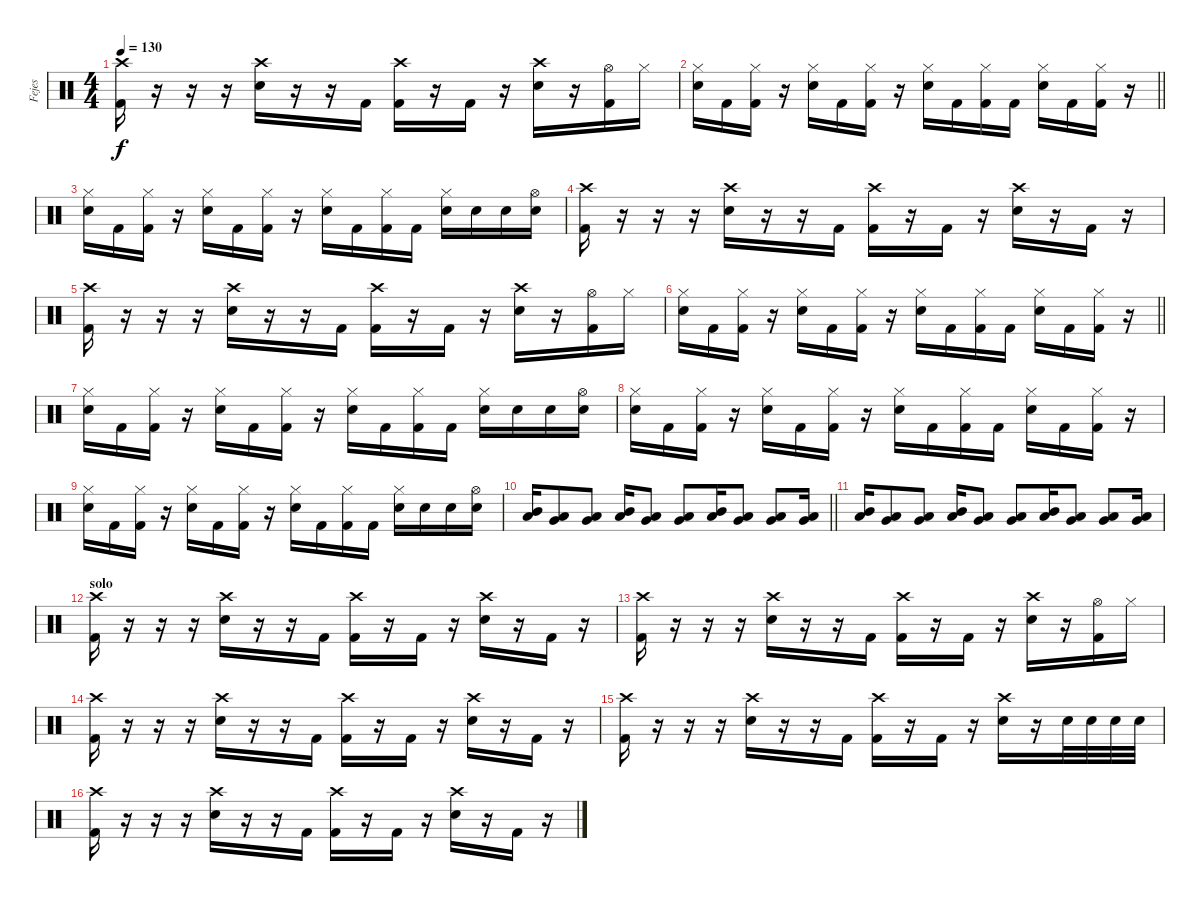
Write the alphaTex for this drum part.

\track ("Fejes" "Fejes") {instrument percussion}
\staff {score}
\articulation defaults
\ts (4 4)
\tempo 130
\clef neutral
\ks c
("Crash high (hit)" "Kick (hit) 2").16{dy f} r.16 r.16 r.16 ("Crash high (hit)" "Snare (hit) 2").16 r.16 r.16 "Kick (hit) 2".16 ("Crash high (hit)" "Kick (hit) 2").16 r.16 "Kick (hit) 2".16 r.16 ("Crash high (hit)" "Snare (hit) 2").16 r.16 ("Hi-Hat (open)" "Kick (hit) 2").16 "Hi-Hat (closed)".16 |
\barLineRight lightlight
("Hi-Hat (closed)" "Snare (hit) 2").16 "Kick (hit) 2".16 ("Hi-Hat (closed)" "Kick (hit) 2").16 r.16 ("Hi-Hat (closed)" "Snare (hit) 2").16 "Kick (hit) 2".16 ("Hi-Hat (closed)" "Kick (hit) 2").16 r.16 ("Hi-Hat (closed)" "Snare (hit) 2").16 "Kick (hit) 2".16 ("Hi-Hat (closed)" "Kick (hit) 2").16 "Kick (hit) 2".16 ("Hi-Hat (closed)" "Snare (hit) 2").16 "Kick (hit) 2".16 ("Hi-Hat (closed)" "Kick (hit) 2").16 r.16 |
("Hi-Hat (closed)" "Snare (hit) 2").16 "Kick (hit) 2".16 ("Hi-Hat (closed)" "Kick (hit) 2").16 r.16 ("Hi-Hat (closed)" "Snare (hit) 2").16 "Kick (hit) 2".16 ("Hi-Hat (closed)" "Kick (hit) 2").16 r.16 ("Hi-Hat (closed)" "Snare (hit) 2").16 "Kick (hit) 2".16 ("Hi-Hat (closed)" "Kick (hit) 2").16 "Kick (hit) 2".16 ("Hi-Hat (closed)" "Snare (hit) 2").16 "Snare (hit) 2".16 "Snare (hit) 2".16 ("Hi-Hat (open)" "Snare (hit) 2").16 |
("Crash high (hit)" "Kick (hit) 2").16 r.16 r.16 r.16 ("Crash high (hit)" "Snare (hit) 2").16 r.16 r.16 "Kick (hit) 2".16 ("Crash high (hit)" "Kick (hit) 2").16 r.16 "Kick (hit) 2".16 r.16 ("Crash high (hit)" "Snare (hit) 2").16 r.16 "Kick (hit) 2".16 r.16 |
("Crash high (hit)" "Kick (hit) 2").16 r.16 r.16 r.16 ("Crash high (hit)" "Snare (hit) 2").16 r.16 r.16 "Kick (hit) 2".16 ("Crash high (hit)" "Kick (hit) 2").16 r.16 "Kick (hit) 2".16 r.16 ("Crash high (hit)" "Snare (hit) 2").16 r.16 ("Hi-Hat (open)" "Kick (hit) 2").16 "Hi-Hat (closed)".16 |
\barLineRight lightlight
("Hi-Hat (closed)" "Snare (hit) 2").16 "Kick (hit) 2".16 ("Hi-Hat (closed)" "Kick (hit) 2").16 r.16 ("Hi-Hat (closed)" "Snare (hit) 2").16 "Kick (hit) 2".16 ("Hi-Hat (closed)" "Kick (hit) 2").16 r.16 ("Hi-Hat (closed)" "Snare (hit) 2").16 "Kick (hit) 2".16 ("Hi-Hat (closed)" "Kick (hit) 2").16 "Kick (hit) 2".16 ("Hi-Hat (closed)" "Snare (hit) 2").16 "Kick (hit) 2".16 ("Hi-Hat (closed)" "Kick (hit) 2").16 r.16 |
("Hi-Hat (closed)" "Snare (hit) 2").16 "Kick (hit) 2".16 ("Hi-Hat (closed)" "Kick (hit) 2").16 r.16 ("Hi-Hat (closed)" "Snare (hit) 2").16 "Kick (hit) 2".16 ("Hi-Hat (closed)" "Kick (hit) 2").16 r.16 ("Hi-Hat (closed)" "Snare (hit) 2").16 "Kick (hit) 2".16 ("Hi-Hat (closed)" "Kick (hit) 2").16 "Kick (hit) 2".16 ("Hi-Hat (closed)" "Snare (hit) 2").16 "Snare (hit) 2".16 "Snare (hit) 2".16 ("Hi-Hat (open)" "Snare (hit) 2").16 |
("Hi-Hat (closed)" "Snare (hit) 2").16 "Kick (hit) 2".16 ("Hi-Hat (closed)" "Kick (hit) 2").16 r.16 ("Hi-Hat (closed)" "Snare (hit) 2").16 "Kick (hit) 2".16 ("Hi-Hat (closed)" "Kick (hit) 2").16 r.16 ("Hi-Hat (closed)" "Snare (hit) 2").16 "Kick (hit) 2".16 ("Hi-Hat (closed)" "Kick (hit) 2").16 "Kick (hit) 2".16 ("Hi-Hat (closed)" "Snare (hit) 2").16 "Kick (hit) 2".16 ("Hi-Hat (closed)" "Kick (hit) 2").16 r.16 |
("Hi-Hat (closed)" "Snare (hit) 2").16 "Kick (hit) 2".16 ("Hi-Hat (closed)" "Kick (hit) 2").16 r.16 ("Hi-Hat (closed)" "Snare (hit) 2").16 "Kick (hit) 2".16 ("Hi-Hat (closed)" "Kick (hit) 2").16 r.16 ("Hi-Hat (closed)" "Snare (hit) 2").16 "Kick (hit) 2".16 ("Hi-Hat (closed)" "Kick (hit) 2").16 "Kick (hit) 2".16 ("Hi-Hat (closed)" "Snare (hit) 2").16 "Snare (hit) 2".16 "Snare (hit) 2".16 ("Hi-Hat (open)" "Snare (hit) 2").16 |
\barLineRight lightlight
("Mid Tom (hit)" "Low Tom (hit)").16 ("Low Tom (hit)" "Very Low Tom (hit)").8 ("Very Low Tom (hit)" "Low Floor Tom (hit)").8 ("Mid Tom (hit)" "Low Tom (hit)").16 ("Low Tom (hit)" "Very Low Tom (hit)").8 ("Very Low Tom (hit)" "Low Floor Tom (hit)").8 ("Mid Tom (hit)" "Low Tom (hit)").16 ("Low Tom (hit)" "Very Low Tom (hit)").8 ("Very Low Tom (hit)" "Low Floor Tom (hit)").8 ("Very Low Tom (hit)" "Low Floor Tom (hit)").16 |
("Mid Tom (hit)" "Low Tom (hit)").16 ("Low Tom (hit)" "Very Low Tom (hit)").8 ("Very Low Tom (hit)" "Low Floor Tom (hit)").8 ("Mid Tom (hit)" "Low Tom (hit)").16 ("Low Tom (hit)" "Very Low Tom (hit)").8 ("Very Low Tom (hit)" "Low Floor Tom (hit)").8 ("Mid Tom (hit)" "Low Tom (hit)").16 ("Low Tom (hit)" "Very Low Tom (hit)").8 ("Very Low Tom (hit)" "Low Floor Tom (hit)").8 ("Very Low Tom (hit)" "Low Floor Tom (hit)").16 |
\section ("" "solo")
("Crash high (hit)" "Kick (hit) 2").16 r.16 r.16 r.16 ("Crash high (hit)" "Snare (hit) 2").16 r.16 r.16 "Kick (hit) 2".16 ("Crash high (hit)" "Kick (hit) 2").16 r.16 "Kick (hit) 2".16 r.16 ("Crash high (hit)" "Snare (hit) 2").16 r.16 "Kick (hit) 2".16 r.16 |
("Crash high (hit)" "Kick (hit) 2").16 r.16 r.16 r.16 ("Crash high (hit)" "Snare (hit) 2").16 r.16 r.16 "Kick (hit) 2".16 ("Crash high (hit)" "Kick (hit) 2").16 r.16 "Kick (hit) 2".16 r.16 ("Crash high (hit)" "Snare (hit) 2").16 r.16 ("Hi-Hat (open)" "Kick (hit) 2").16 "Hi-Hat (closed)".16 |
("Crash high (hit)" "Kick (hit) 2").16 r.16 r.16 r.16 ("Crash high (hit)" "Snare (hit) 2").16 r.16 r.16 "Kick (hit) 2".16 ("Crash high (hit)" "Kick (hit) 2").16 r.16 "Kick (hit) 2".16 r.16 ("Crash high (hit)" "Snare (hit) 2").16 r.16 "Kick (hit) 2".16 r.16 |
("Crash high (hit)" "Kick (hit) 2").16 r.16 r.16 r.16 ("Crash high (hit)" "Snare (hit) 2").16 r.16 r.16 "Kick (hit) 2".16 ("Crash high (hit)" "Kick (hit) 2").16 r.16 "Kick (hit) 2".16 r.16 ("Crash high (hit)" "Snare (hit) 2").16 r.16 "Snare (hit) 2".32 "Snare (hit) 2".32 "Snare (hit) 2".32 "Snare (hit) 2".32 |
("Crash high (hit)" "Kick (hit) 2").16 r.16 r.16 r.16 ("Crash high (hit)" "Snare (hit) 2").16 r.16 r.16 "Kick (hit) 2".16 ("Crash high (hit)" "Kick (hit) 2").16 r.16 "Kick (hit) 2".16 r.16 ("Crash high (hit)" "Snare (hit) 2").16 r.16 "Kick (hit) 2".16 r.16
